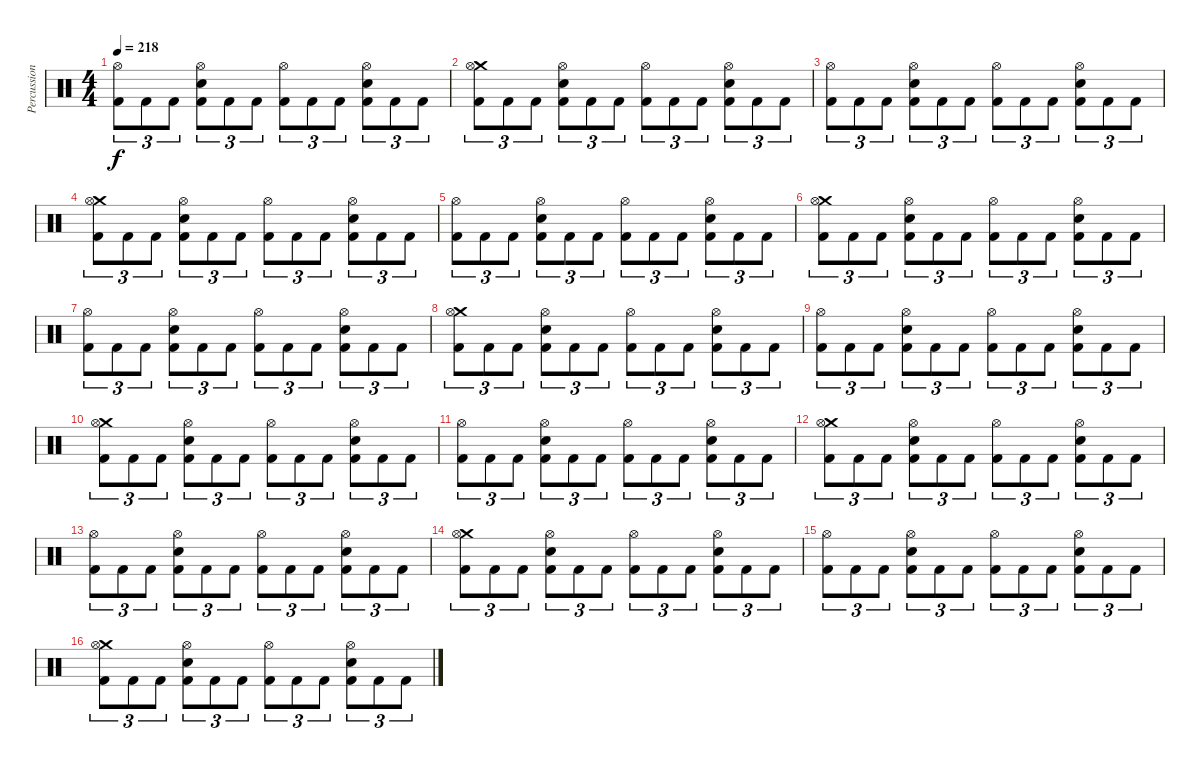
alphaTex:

\track ("Percussion" "Percussion") {instrument percussion}
\staff {score}
\articulation defaults
\ts (4 4)
\tempo 218
\clef neutral
\ks c
("Hi-Hat (open)" "Kick (hit) 2").8{tu (3 2) dy f} "Kick (hit) 2".8{tu (3 2)} "Kick (hit) 2".8{tu (3 2)} ("Hi-Hat (open)" "Electric Snare (hit)" "Kick (hit) 2").8{tu (3 2)} "Kick (hit) 2".8{tu (3 2)} "Kick (hit) 2".8{tu (3 2)} ("Hi-Hat (open)" "Kick (hit) 2").8{tu (3 2)} "Kick (hit) 2".8{tu (3 2)} "Kick (hit) 2".8{tu (3 2)} ("Hi-Hat (open)" "Electric Snare (hit)" "Kick (hit) 2").8{tu (3 2)} "Kick (hit) 2".8{tu (3 2)} "Kick (hit) 2".8{tu (3 2)} |
("Crash medium (hit)" "Hi-Hat (open)" "Kick (hit) 2").8{tu (3 2)} "Kick (hit) 2".8{tu (3 2)} "Kick (hit) 2".8{tu (3 2)} ("Hi-Hat (open)" "Electric Snare (hit)" "Kick (hit) 2").8{tu (3 2)} "Kick (hit) 2".8{tu (3 2)} "Kick (hit) 2".8{tu (3 2)} ("Hi-Hat (open)" "Kick (hit) 2").8{tu (3 2)} "Kick (hit) 2".8{tu (3 2)} "Kick (hit) 2".8{tu (3 2)} ("Hi-Hat (open)" "Electric Snare (hit)" "Kick (hit) 2").8{tu (3 2)} "Kick (hit) 2".8{tu (3 2)} "Kick (hit) 2".8{tu (3 2)} |
("Hi-Hat (open)" "Kick (hit) 2").8{tu (3 2)} "Kick (hit) 2".8{tu (3 2)} "Kick (hit) 2".8{tu (3 2)} ("Hi-Hat (open)" "Electric Snare (hit)" "Kick (hit) 2").8{tu (3 2)} "Kick (hit) 2".8{tu (3 2)} "Kick (hit) 2".8{tu (3 2)} ("Hi-Hat (open)" "Kick (hit) 2").8{tu (3 2)} "Kick (hit) 2".8{tu (3 2)} "Kick (hit) 2".8{tu (3 2)} ("Hi-Hat (open)" "Electric Snare (hit)" "Kick (hit) 2").8{tu (3 2)} "Kick (hit) 2".8{tu (3 2)} "Kick (hit) 2".8{tu (3 2)} |
("Crash medium (hit)" "Hi-Hat (open)" "Kick (hit) 2").8{tu (3 2)} "Kick (hit) 2".8{tu (3 2)} "Kick (hit) 2".8{tu (3 2)} ("Hi-Hat (open)" "Electric Snare (hit)" "Kick (hit) 2").8{tu (3 2)} "Kick (hit) 2".8{tu (3 2)} "Kick (hit) 2".8{tu (3 2)} ("Hi-Hat (open)" "Kick (hit) 2").8{tu (3 2)} "Kick (hit) 2".8{tu (3 2)} "Kick (hit) 2".8{tu (3 2)} ("Hi-Hat (open)" "Electric Snare (hit)" "Kick (hit) 2").8{tu (3 2)} "Kick (hit) 2".8{tu (3 2)} "Kick (hit) 2".8{tu (3 2)} |
("Hi-Hat (open)" "Kick (hit) 2").8{tu (3 2)} "Kick (hit) 2".8{tu (3 2)} "Kick (hit) 2".8{tu (3 2)} ("Hi-Hat (open)" "Electric Snare (hit)" "Kick (hit) 2").8{tu (3 2)} "Kick (hit) 2".8{tu (3 2)} "Kick (hit) 2".8{tu (3 2)} ("Hi-Hat (open)" "Kick (hit) 2").8{tu (3 2)} "Kick (hit) 2".8{tu (3 2)} "Kick (hit) 2".8{tu (3 2)} ("Hi-Hat (open)" "Electric Snare (hit)" "Kick (hit) 2").8{tu (3 2)} "Kick (hit) 2".8{tu (3 2)} "Kick (hit) 2".8{tu (3 2)} |
("Crash medium (hit)" "Hi-Hat (open)" "Kick (hit) 2").8{tu (3 2)} "Kick (hit) 2".8{tu (3 2)} "Kick (hit) 2".8{tu (3 2)} ("Hi-Hat (open)" "Electric Snare (hit)" "Kick (hit) 2").8{tu (3 2)} "Kick (hit) 2".8{tu (3 2)} "Kick (hit) 2".8{tu (3 2)} ("Hi-Hat (open)" "Kick (hit) 2").8{tu (3 2)} "Kick (hit) 2".8{tu (3 2)} "Kick (hit) 2".8{tu (3 2)} ("Hi-Hat (open)" "Electric Snare (hit)" "Kick (hit) 2").8{tu (3 2)} "Kick (hit) 2".8{tu (3 2)} "Kick (hit) 2".8{tu (3 2)} |
("Hi-Hat (open)" "Kick (hit) 2").8{tu (3 2)} "Kick (hit) 2".8{tu (3 2)} "Kick (hit) 2".8{tu (3 2)} ("Hi-Hat (open)" "Electric Snare (hit)" "Kick (hit) 2").8{tu (3 2)} "Kick (hit) 2".8{tu (3 2)} "Kick (hit) 2".8{tu (3 2)} ("Hi-Hat (open)" "Kick (hit) 2").8{tu (3 2)} "Kick (hit) 2".8{tu (3 2)} "Kick (hit) 2".8{tu (3 2)} ("Hi-Hat (open)" "Electric Snare (hit)" "Kick (hit) 2").8{tu (3 2)} "Kick (hit) 2".8{tu (3 2)} "Kick (hit) 2".8{tu (3 2)} |
("Crash medium (hit)" "Hi-Hat (open)" "Kick (hit) 2").8{tu (3 2)} "Kick (hit) 2".8{tu (3 2)} "Kick (hit) 2".8{tu (3 2)} ("Hi-Hat (open)" "Electric Snare (hit)" "Kick (hit) 2").8{tu (3 2)} "Kick (hit) 2".8{tu (3 2)} "Kick (hit) 2".8{tu (3 2)} ("Hi-Hat (open)" "Kick (hit) 2").8{tu (3 2)} "Kick (hit) 2".8{tu (3 2)} "Kick (hit) 2".8{tu (3 2)} ("Hi-Hat (open)" "Electric Snare (hit)" "Kick (hit) 2").8{tu (3 2)} "Kick (hit) 2".8{tu (3 2)} "Kick (hit) 2".8{tu (3 2)} |
("Hi-Hat (open)" "Kick (hit) 2").8{tu (3 2)} "Kick (hit) 2".8{tu (3 2)} "Kick (hit) 2".8{tu (3 2)} ("Hi-Hat (open)" "Electric Snare (hit)" "Kick (hit) 2").8{tu (3 2)} "Kick (hit) 2".8{tu (3 2)} "Kick (hit) 2".8{tu (3 2)} ("Hi-Hat (open)" "Kick (hit) 2").8{tu (3 2)} "Kick (hit) 2".8{tu (3 2)} "Kick (hit) 2".8{tu (3 2)} ("Hi-Hat (open)" "Electric Snare (hit)" "Kick (hit) 2").8{tu (3 2)} "Kick (hit) 2".8{tu (3 2)} "Kick (hit) 2".8{tu (3 2)} |
("Crash medium (hit)" "Hi-Hat (open)" "Kick (hit) 2").8{tu (3 2)} "Kick (hit) 2".8{tu (3 2)} "Kick (hit) 2".8{tu (3 2)} ("Hi-Hat (open)" "Electric Snare (hit)" "Kick (hit) 2").8{tu (3 2)} "Kick (hit) 2".8{tu (3 2)} "Kick (hit) 2".8{tu (3 2)} ("Hi-Hat (open)" "Kick (hit) 2").8{tu (3 2)} "Kick (hit) 2".8{tu (3 2)} "Kick (hit) 2".8{tu (3 2)} ("Hi-Hat (open)" "Electric Snare (hit)" "Kick (hit) 2").8{tu (3 2)} "Kick (hit) 2".8{tu (3 2)} "Kick (hit) 2".8{tu (3 2)} |
("Hi-Hat (open)" "Kick (hit) 2").8{tu (3 2)} "Kick (hit) 2".8{tu (3 2)} "Kick (hit) 2".8{tu (3 2)} ("Hi-Hat (open)" "Electric Snare (hit)" "Kick (hit) 2").8{tu (3 2)} "Kick (hit) 2".8{tu (3 2)} "Kick (hit) 2".8{tu (3 2)} ("Hi-Hat (open)" "Kick (hit) 2").8{tu (3 2)} "Kick (hit) 2".8{tu (3 2)} "Kick (hit) 2".8{tu (3 2)} ("Hi-Hat (open)" "Electric Snare (hit)" "Kick (hit) 2").8{tu (3 2)} "Kick (hit) 2".8{tu (3 2)} "Kick (hit) 2".8{tu (3 2)} |
("Crash medium (hit)" "Hi-Hat (open)" "Kick (hit) 2").8{tu (3 2)} "Kick (hit) 2".8{tu (3 2)} "Kick (hit) 2".8{tu (3 2)} ("Hi-Hat (open)" "Electric Snare (hit)" "Kick (hit) 2").8{tu (3 2)} "Kick (hit) 2".8{tu (3 2)} "Kick (hit) 2".8{tu (3 2)} ("Hi-Hat (open)" "Kick (hit) 2").8{tu (3 2)} "Kick (hit) 2".8{tu (3 2)} "Kick (hit) 2".8{tu (3 2)} ("Hi-Hat (open)" "Electric Snare (hit)" "Kick (hit) 2").8{tu (3 2)} "Kick (hit) 2".8{tu (3 2)} "Kick (hit) 2".8{tu (3 2)} |
("Hi-Hat (open)" "Kick (hit) 2").8{tu (3 2)} "Kick (hit) 2".8{tu (3 2)} "Kick (hit) 2".8{tu (3 2)} ("Hi-Hat (open)" "Electric Snare (hit)" "Kick (hit) 2").8{tu (3 2)} "Kick (hit) 2".8{tu (3 2)} "Kick (hit) 2".8{tu (3 2)} ("Hi-Hat (open)" "Kick (hit) 2").8{tu (3 2)} "Kick (hit) 2".8{tu (3 2)} "Kick (hit) 2".8{tu (3 2)} ("Hi-Hat (open)" "Electric Snare (hit)" "Kick (hit) 2").8{tu (3 2)} "Kick (hit) 2".8{tu (3 2)} "Kick (hit) 2".8{tu (3 2)} |
("Crash medium (hit)" "Hi-Hat (open)" "Kick (hit) 2").8{tu (3 2)} "Kick (hit) 2".8{tu (3 2)} "Kick (hit) 2".8{tu (3 2)} ("Hi-Hat (open)" "Electric Snare (hit)" "Kick (hit) 2").8{tu (3 2)} "Kick (hit) 2".8{tu (3 2)} "Kick (hit) 2".8{tu (3 2)} ("Hi-Hat (open)" "Kick (hit) 2").8{tu (3 2)} "Kick (hit) 2".8{tu (3 2)} "Kick (hit) 2".8{tu (3 2)} ("Hi-Hat (open)" "Electric Snare (hit)" "Kick (hit) 2").8{tu (3 2)} "Kick (hit) 2".8{tu (3 2)} "Kick (hit) 2".8{tu (3 2)} |
("Hi-Hat (open)" "Kick (hit) 2").8{tu (3 2)} "Kick (hit) 2".8{tu (3 2)} "Kick (hit) 2".8{tu (3 2)} ("Hi-Hat (open)" "Electric Snare (hit)" "Kick (hit) 2").8{tu (3 2)} "Kick (hit) 2".8{tu (3 2)} "Kick (hit) 2".8{tu (3 2)} ("Hi-Hat (open)" "Kick (hit) 2").8{tu (3 2)} "Kick (hit) 2".8{tu (3 2)} "Kick (hit) 2".8{tu (3 2)} ("Hi-Hat (open)" "Electric Snare (hit)" "Kick (hit) 2").8{tu (3 2)} "Kick (hit) 2".8{tu (3 2)} "Kick (hit) 2".8{tu (3 2)} |
("Crash medium (hit)" "Hi-Hat (open)" "Kick (hit) 2").8{tu (3 2)} "Kick (hit) 2".8{tu (3 2)} "Kick (hit) 2".8{tu (3 2)} ("Hi-Hat (open)" "Electric Snare (hit)" "Kick (hit) 2").8{tu (3 2)} "Kick (hit) 2".8{tu (3 2)} "Kick (hit) 2".8{tu (3 2)} ("Hi-Hat (open)" "Kick (hit) 2").8{tu (3 2)} "Kick (hit) 2".8{tu (3 2)} "Kick (hit) 2".8{tu (3 2)} ("Hi-Hat (open)" "Electric Snare (hit)" "Kick (hit) 2").8{tu (3 2)} "Kick (hit) 2".8{tu (3 2)} "Kick (hit) 2".8{tu (3 2)}
